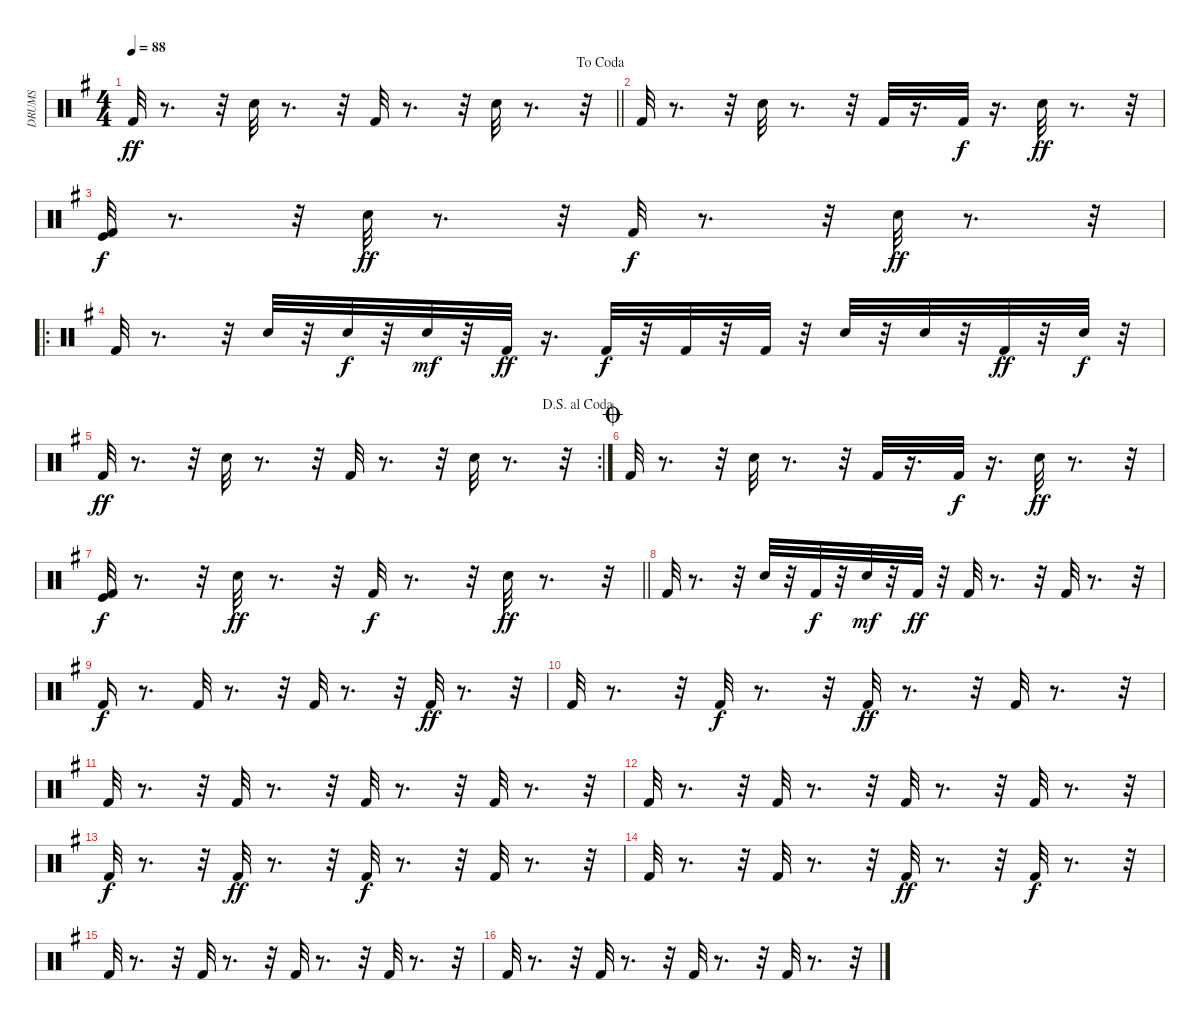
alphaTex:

\track ("DRUMS" "DRUMS") {instrument percussion}
\staff {score}
\articulation defaults
\ts (4 4)
\jump dacoda
\tempo 88
\clef neutral
\barLineRight lightlight
\ks g "Kick (hit) 2".32{dy ff}
r.8{d} r.32 "Electric Snare (hit)".32 r.8{d} r.32 "Kick (hit) 2".32 r.8{d} r.32 "Electric Snare (hit)".32 r.8{d} r.32 |
"Kick (hit) 2".32 r.8{d} r.32 "Electric Snare (hit)".32 r.8{d} r.32 "Kick (hit) 2".32 r.16{d} "Kick (hit) 2".32{dy f} r.16{d} "Electric Snare (hit)".32{dy ff} r.8{d} r.32 |
("Kick (hit)" "Kick (hit) 2").32{dy f} r.8{d} r.32 "Electric Snare (hit)".32{dy ff} r.8{d} r.32 "Kick (hit) 2".32{dy f} r.8{d} r.32 "Electric Snare (hit)".32{dy ff} r.8{d} r.32 |
\ro "Kick (hit) 2".32
r.8{d} r.32 "Electric Snare (hit)".32 r.32 "Electric Snare (hit)".32{dy f} r.32 "Electric Snare (hit)".32{dy mf} r.32 "Kick (hit) 2".32{dy ff} r.16{d} "Kick (hit) 2".32{dy f} r.32 "Kick (hit) 2".32 r.32 "Kick (hit) 2".32 r.32 "Electric Snare (hit)".32 r.32 "Electric Snare (hit)".32 r.32 "Kick (hit) 2".32{dy ff} r.32 "Electric Snare (hit)".32{dy f} r.32 |
\rc 2
\jump dalsegnoalcoda "Kick (hit) 2".32{dy ff}
r.8{d} r.32 "Electric Snare (hit)".32 r.8{d} r.32 "Kick (hit) 2".32 r.8{d} r.32 "Electric Snare (hit)".32 r.8{d} r.32 |
\jump coda "Kick (hit) 2".32
r.8{d} r.32 "Electric Snare (hit)".32 r.8{d} r.32 "Kick (hit) 2".32 r.16{d} "Kick (hit) 2".32{dy f} r.16{d} "Electric Snare (hit)".32{dy ff} r.8{d} r.32 |
\barLineRight lightlight
("Kick (hit)" "Kick (hit) 2").32{dy f} r.8{d} r.32 "Electric Snare (hit)".32{dy ff} r.8{d} r.32 "Kick (hit) 2".32{dy f} r.8{d} r.32 "Electric Snare (hit)".32{dy ff} r.8{d} r.32 |
"Kick (hit) 2".32 r.8{d} r.32 "Electric Snare (hit)".32 r.32 "Kick (hit) 2".32{dy f} r.32 "Electric Snare (hit)".32{dy mf} r.32 "Kick (hit) 2".32{dy ff} r.32 "Kick (hit) 2".32 r.8{d} r.32 "Kick (hit) 2".32 r.8{d} r.32 |
"Kick (hit) 2".16{dy f} r.8{d} "Kick (hit) 2".32 r.8{d} r.32 "Kick (hit) 2".32 r.8{d} r.32 "Kick (hit) 2".32{dy ff} r.8{d} r.32 |
"Kick (hit) 2".32 r.8{d} r.32 "Kick (hit) 2".32{dy f} r.8{d} r.32 "Kick (hit) 2".32{dy ff} r.8{d} r.32 "Kick (hit) 2".32 r.8{d} r.32 |
"Kick (hit) 2".32 r.8{d} r.32 "Kick (hit) 2".32 r.8{d} r.32 "Kick (hit) 2".32 r.8{d} r.32 "Kick (hit) 2".32 r.8{d} r.32 |
"Kick (hit) 2".32 r.8{d} r.32 "Kick (hit) 2".32 r.8{d} r.32 "Kick (hit) 2".32 r.8{d} r.32 "Kick (hit) 2".32 r.8{d} r.32 |
"Kick (hit) 2".32{dy f} r.8{d} r.32 "Kick (hit) 2".32{dy ff} r.8{d} r.32 "Kick (hit) 2".32{dy f} r.8{d} r.32 "Kick (hit) 2".32 r.8{d} r.32 |
"Kick (hit) 2".32 r.8{d} r.32 "Kick (hit) 2".32 r.8{d} r.32 "Kick (hit) 2".32{dy ff} r.8{d} r.32 "Kick (hit) 2".32{dy f} r.8{d} r.32 |
"Kick (hit) 2".32 r.8{d} r.32 "Kick (hit) 2".32 r.8{d} r.32 "Kick (hit) 2".32 r.8{d} r.32 "Kick (hit) 2".32 r.8{d} r.32 |
"Kick (hit) 2".32 r.8{d} r.32 "Kick (hit) 2".32 r.8{d} r.32 "Kick (hit) 2".32 r.8{d} r.32 "Kick (hit) 2".32 r.8{d} r.32
